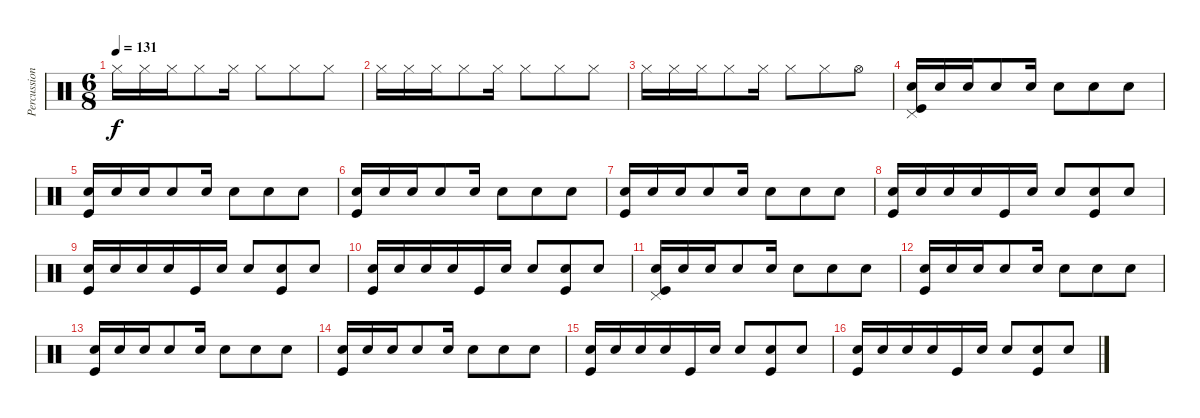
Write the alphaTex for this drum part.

\track ("Percussion" "Percussion") {instrument percussion}
\staff {score}
\articulation defaults
\ts (6 8)
\tempo 131
\clef neutral
\ks c "Hi-Hat (closed)".16{dy f} "Hi-Hat (closed)".16 "Hi-Hat (closed)".16 "Hi-Hat (closed)".8 "Hi-Hat (closed)".16 "Hi-Hat (closed)".8 "Hi-Hat (closed)".8 "Hi-Hat (closed)".8
|
"Hi-Hat (closed)".16 "Hi-Hat (closed)".16 "Hi-Hat (closed)".16 "Hi-Hat (closed)".8 "Hi-Hat (closed)".16 "Hi-Hat (closed)".8 "Hi-Hat (closed)".8 "Hi-Hat (closed)".8 |
"Hi-Hat (closed)".16 "Hi-Hat (closed)".16 "Hi-Hat (closed)".16 "Hi-Hat (closed)".8 "Hi-Hat (closed)".16 "Hi-Hat (closed)".8 "Hi-Hat (closed)".8 "Hi-Hat (open)".8 |
("Pedal Hi-Hat (hit)" "Kick (hit)" "Snare (hit) 2").16 "Snare (hit) 2".16 "Snare (hit) 2".16 "Snare (hit) 2".8 "Snare (hit) 2".16 "Snare (hit) 2".8 "Snare (hit) 2".8 "Snare (hit) 2".8 |
("Kick (hit)" "Snare (hit) 2").16 "Snare (hit) 2".16 "Snare (hit) 2".16 "Snare (hit) 2".8 "Snare (hit) 2".16 "Snare (hit) 2".8 "Snare (hit) 2".8 "Snare (hit) 2".8 |
("Kick (hit)" "Snare (hit) 2").16 "Snare (hit) 2".16 "Snare (hit) 2".16 "Snare (hit) 2".8 "Snare (hit) 2".16 "Snare (hit) 2".8 "Snare (hit) 2".8 "Snare (hit) 2".8 |
("Kick (hit)" "Snare (hit) 2").16 "Snare (hit) 2".16 "Snare (hit) 2".16 "Snare (hit) 2".8 "Snare (hit) 2".16 "Snare (hit) 2".8 "Snare (hit) 2".8 "Snare (hit) 2".8 |
("Kick (hit)" "Snare (hit) 2").16 "Snare (hit) 2".16 "Snare (hit) 2".16 "Snare (hit) 2".16 "Kick (hit)".16 "Snare (hit) 2".16 "Snare (hit) 2".8 ("Snare (hit) 2" "Kick (hit)").8 "Snare (hit) 2".8 |
("Kick (hit)" "Snare (hit) 2").16 "Snare (hit) 2".16 "Snare (hit) 2".16 "Snare (hit) 2".16 "Kick (hit)".16 "Snare (hit) 2".16 "Snare (hit) 2".8 ("Snare (hit) 2" "Kick (hit)").8 "Snare (hit) 2".8 |
("Kick (hit)" "Snare (hit) 2").16 "Snare (hit) 2".16 "Snare (hit) 2".16 "Snare (hit) 2".16 "Kick (hit)".16 "Snare (hit) 2".16 "Snare (hit) 2".8 ("Snare (hit) 2" "Kick (hit)").8 "Snare (hit) 2".8 |
("Pedal Hi-Hat (hit)" "Kick (hit)" "Snare (hit) 2").16 "Snare (hit) 2".16 "Snare (hit) 2".16 "Snare (hit) 2".8 "Snare (hit) 2".16 "Snare (hit) 2".8 "Snare (hit) 2".8 "Snare (hit) 2".8 |
("Kick (hit)" "Snare (hit) 2").16 "Snare (hit) 2".16 "Snare (hit) 2".16 "Snare (hit) 2".8 "Snare (hit) 2".16 "Snare (hit) 2".8 "Snare (hit) 2".8 "Snare (hit) 2".8 |
("Kick (hit)" "Snare (hit) 2").16 "Snare (hit) 2".16 "Snare (hit) 2".16 "Snare (hit) 2".8 "Snare (hit) 2".16 "Snare (hit) 2".8 "Snare (hit) 2".8 "Snare (hit) 2".8 |
("Kick (hit)" "Snare (hit) 2").16 "Snare (hit) 2".16 "Snare (hit) 2".16 "Snare (hit) 2".8 "Snare (hit) 2".16 "Snare (hit) 2".8 "Snare (hit) 2".8 "Snare (hit) 2".8 |
("Kick (hit)" "Snare (hit) 2").16 "Snare (hit) 2".16 "Snare (hit) 2".16 "Snare (hit) 2".16 "Kick (hit)".16 "Snare (hit) 2".16 "Snare (hit) 2".8 ("Snare (hit) 2" "Kick (hit)").8 "Snare (hit) 2".8 |
("Kick (hit)" "Snare (hit) 2").16 "Snare (hit) 2".16 "Snare (hit) 2".16 "Snare (hit) 2".16 "Kick (hit)".16 "Snare (hit) 2".16 "Snare (hit) 2".8 ("Snare (hit) 2" "Kick (hit)").8 "Snare (hit) 2".8
